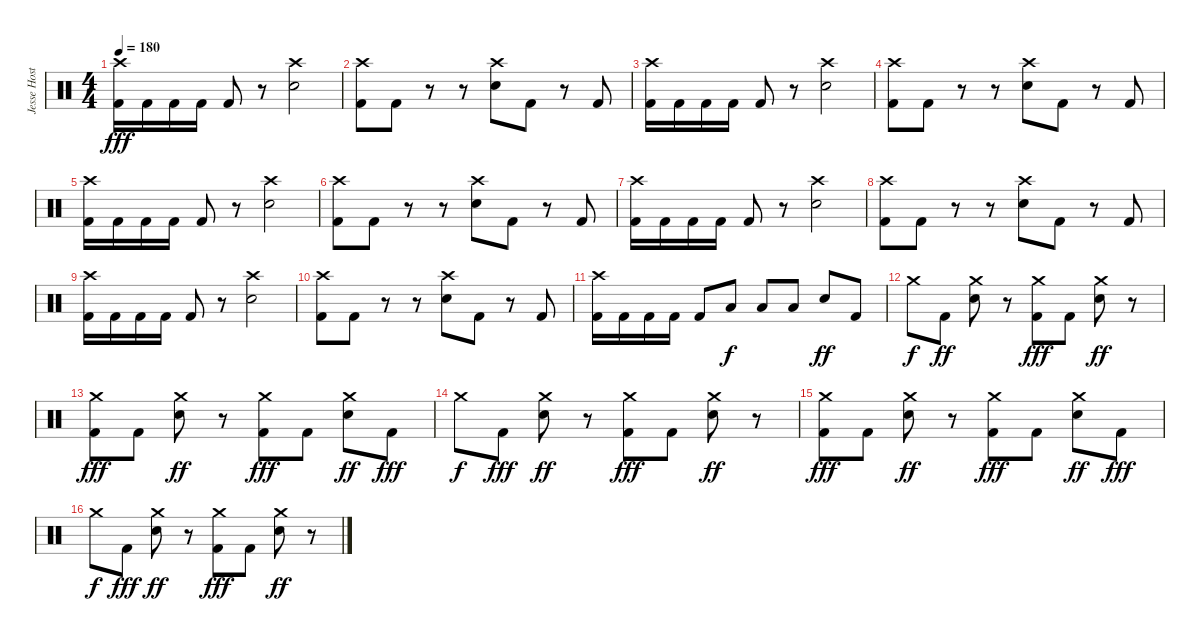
\track ("Jesse Hostetler" "Jesse Host") {instrument percussion}
\staff {score}
\articulation defaults
\ts (4 4)
\tempo 180
\clef neutral
\ks c
("Crash high (hit)" "Kick (hit) 2").16{dy fff} "Kick (hit) 2".16 "Kick (hit) 2".16 "Kick (hit) 2".16 "Kick (hit) 2".8 r.8 ("Crash high (hit)" "Electric Snare (hit)").2 |
("Crash high (hit)" "Kick (hit) 2").8 "Kick (hit) 2".8 r.8 r.8 ("Crash high (hit)" "Electric Snare (hit)").8 "Kick (hit) 2".8 r.8 "Kick (hit) 2".8 |
("Crash high (hit)" "Kick (hit) 2").16 "Kick (hit) 2".16 "Kick (hit) 2".16 "Kick (hit) 2".16 "Kick (hit) 2".8 r.8 ("Crash high (hit)" "Electric Snare (hit)").2 |
("Crash high (hit)" "Kick (hit) 2").8 "Kick (hit) 2".8 r.8 r.8 ("Crash high (hit)" "Electric Snare (hit)").8 "Kick (hit) 2".8 r.8 "Kick (hit) 2".8 |
("Crash high (hit)" "Kick (hit) 2").16 "Kick (hit) 2".16 "Kick (hit) 2".16 "Kick (hit) 2".16 "Kick (hit) 2".8 r.8 ("Crash high (hit)" "Electric Snare (hit)").2 |
("Crash high (hit)" "Kick (hit) 2").8 "Kick (hit) 2".8 r.8 r.8 ("Crash high (hit)" "Electric Snare (hit)").8 "Kick (hit) 2".8 r.8 "Kick (hit) 2".8 |
("Crash high (hit)" "Kick (hit) 2").16 "Kick (hit) 2".16 "Kick (hit) 2".16 "Kick (hit) 2".16 "Kick (hit) 2".8 r.8 ("Crash high (hit)" "Electric Snare (hit)").2 |
("Crash high (hit)" "Kick (hit) 2").8 "Kick (hit) 2".8 r.8 r.8 ("Crash high (hit)" "Electric Snare (hit)").8 "Kick (hit) 2".8 r.8 "Kick (hit) 2".8 |
("Crash high (hit)" "Kick (hit) 2").16 "Kick (hit) 2".16 "Kick (hit) 2".16 "Kick (hit) 2".16 "Kick (hit) 2".8 r.8 ("Crash high (hit)" "Electric Snare (hit)").2 |
("Crash high (hit)" "Kick (hit) 2").8 "Kick (hit) 2".8 r.8 r.8 ("Crash high (hit)" "Electric Snare (hit)").8 "Kick (hit) 2".8 r.8 "Kick (hit) 2".8 |
("Crash high (hit)" "Kick (hit) 2").16 "Kick (hit) 2".16 "Kick (hit) 2".16 "Kick (hit) 2".16 "Kick (hit) 2".8 "Low Floor Tom (hit)".8{dy f} "Low Floor Tom (hit)".8 "Low Floor Tom (hit)".8 "Electric Snare (hit)".8{dy ff} "Kick (hit) 2".8 |
"Crash medium (hit)".8{dy f} "Kick (hit) 2".8{dy ff} ("Crash medium (hit)" "Electric Snare (hit)").8 r.8 ("Crash medium (hit)" "Kick (hit) 2").8{dy fff} "Kick (hit) 2".8 ("Crash medium (hit)" "Electric Snare (hit)").8{dy ff} r.8 |
("Crash medium (hit)" "Kick (hit) 2").8{dy fff} "Kick (hit) 2".8 ("Crash medium (hit)" "Electric Snare (hit)").8{dy ff} r.8 ("Crash medium (hit)" "Kick (hit) 2").8{dy fff} "Kick (hit) 2".8 ("Crash medium (hit)" "Electric Snare (hit)").8{dy ff} "Kick (hit) 2".8{dy fff} |
"Crash medium (hit)".8{dy f} "Kick (hit) 2".8{dy fff} ("Crash medium (hit)" "Electric Snare (hit)").8{dy ff} r.8 ("Crash medium (hit)" "Kick (hit) 2").8{dy fff} "Kick (hit) 2".8 ("Crash medium (hit)" "Electric Snare (hit)").8{dy ff} r.8 |
("Crash medium (hit)" "Kick (hit) 2").8{dy fff} "Kick (hit) 2".8 ("Crash medium (hit)" "Electric Snare (hit)").8{dy ff} r.8 ("Crash medium (hit)" "Kick (hit) 2").8{dy fff} "Kick (hit) 2".8 ("Crash medium (hit)" "Electric Snare (hit)").8{dy ff} "Kick (hit) 2".8{dy fff} |
"Crash medium (hit)".8{dy f} "Kick (hit) 2".8{dy fff} ("Crash medium (hit)" "Electric Snare (hit)").8{dy ff} r.8 ("Crash medium (hit)" "Kick (hit) 2").8{dy fff} "Kick (hit) 2".8 ("Crash medium (hit)" "Electric Snare (hit)").8{dy ff} r.8
